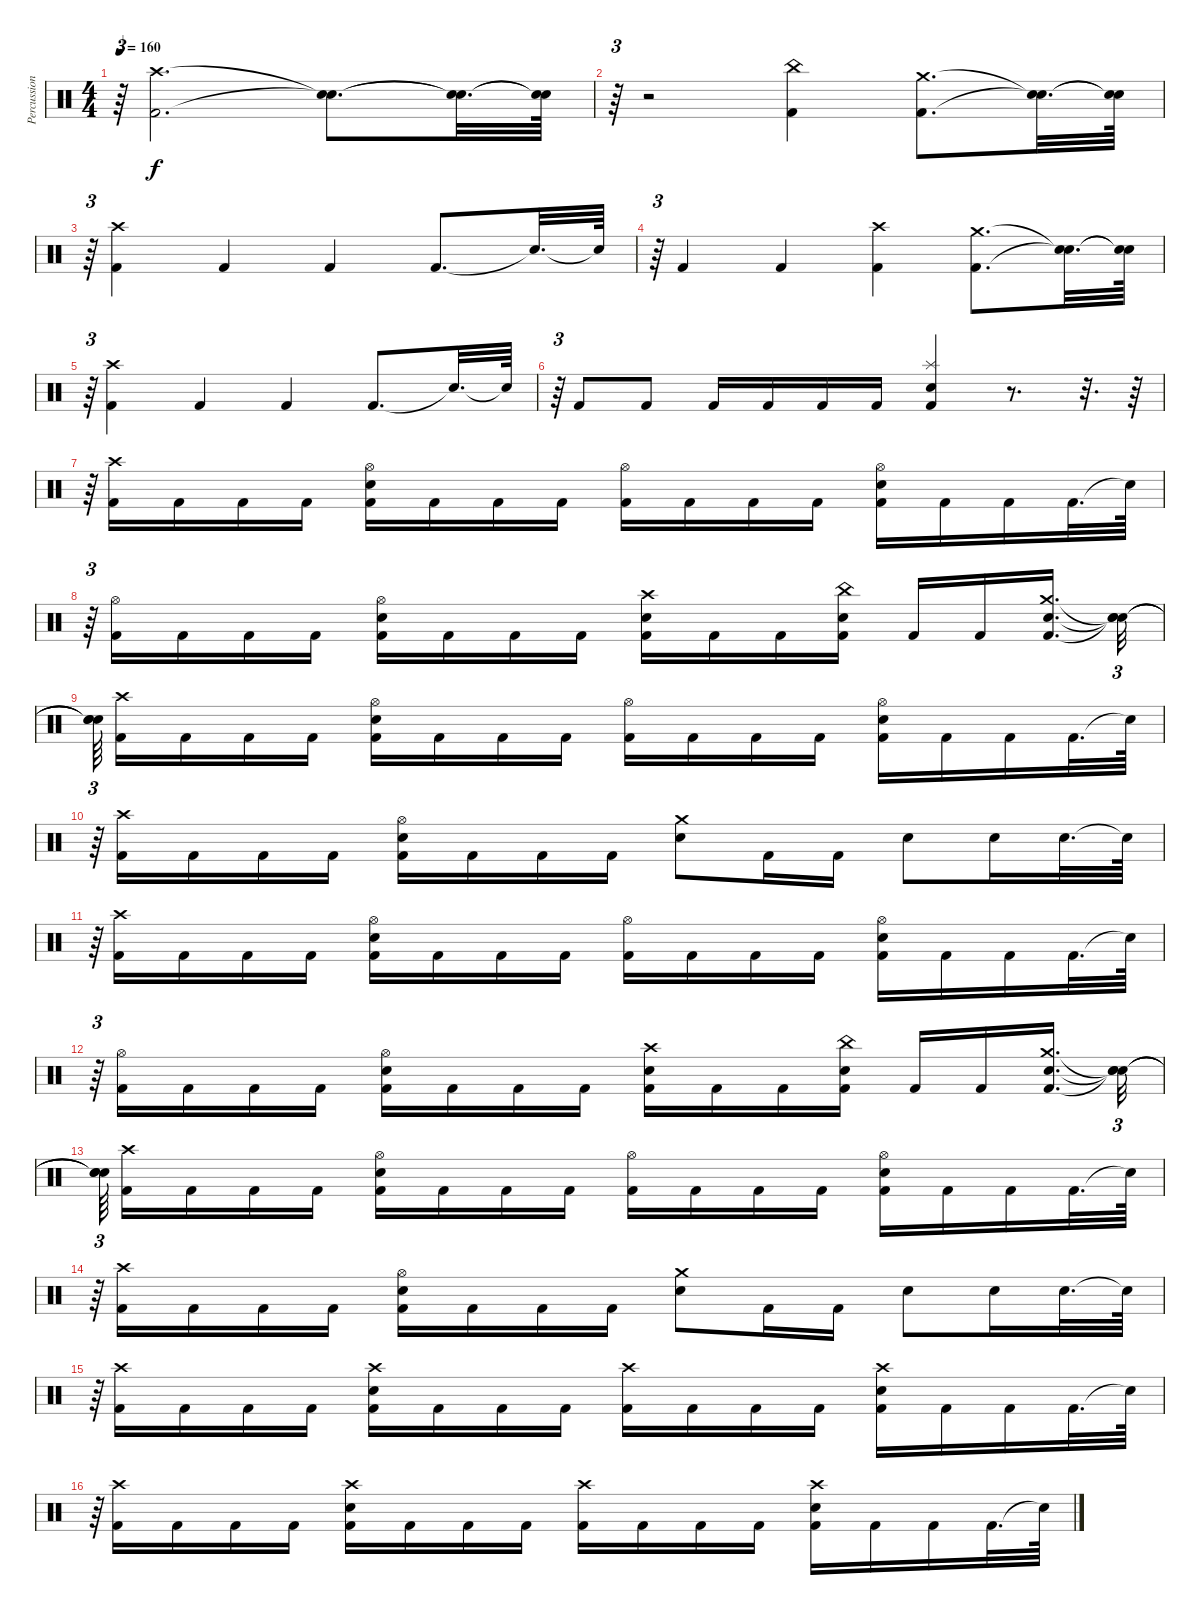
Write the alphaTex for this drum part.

\track ("Percussion" "Percussion") {instrument percussion}
\staff {score}
\articulation defaults
\ts (4 4)
\tempo 160
\clef neutral
\ks c
r.64{tu (3 2) dy f} ("Crash high (hit)" "Kick (hit) 2").2{d} ("Snare (hit)"{t} "Snare (hit)"{t}).8{d} ("Snare (hit)"{t} "Snare (hit)"{t}).32{d} ("Snare (hit)"{t} "Snare (hit)"{t}).64 |
r.64{tu (3 2)} r.2 ("China (hit)" "Kick (hit) 2").4 ("Crash medium (hit)" "Kick (hit) 2").8{d} ("Snare (hit)"{t} "Snare (hit)"{t}).32{d} ("Snare (hit)"{t} "Snare (hit)"{t}).64 |
r.64{tu (3 2)} ("Crash high (hit)" "Kick (hit) 2").4 "Kick (hit) 2".4 "Kick (hit) 2".4 "Kick (hit) 2".8{d} "Snare (hit)"{t}.32{d} "Snare (hit)"{t}.64 |
r.64{tu (3 2)} "Kick (hit) 2".4 "Kick (hit) 2".4 ("Crash high (hit)" "Kick (hit) 2").4 ("Crash medium (hit)" "Kick (hit) 2").8{d} ("Snare (hit)"{t} "Snare (hit)"{t}).32{d} ("Snare (hit)"{t} "Snare (hit)"{t}).64 |
r.64{tu (3 2)} ("Crash high (hit)" "Kick (hit) 2").4 "Kick (hit) 2".4 "Kick (hit) 2".4 "Kick (hit) 2".8{d} "Snare (hit)"{t}.32{d} "Snare (hit)"{t}.64 |
r.64{tu (3 2)} "Kick (hit) 2".8 "Kick (hit) 2".8 "Kick (hit) 2".16 "Kick (hit) 2".16 "Kick (hit) 2".16 "Kick (hit) 2".16 ("Splash (hit)" "Electric Snare (hit)" "Kick (hit) 2").4 r.8{d} r.32{d} r.64 |
r.64{tu (3 2)} ("Crash high (hit)" "Kick (hit) 2").16 "Kick (hit) 2".16 "Kick (hit) 2".16 "Kick (hit) 2".16 ("Hi-Hat (open)" "Electric Snare (hit)" "Kick (hit) 2").16 "Kick (hit) 2".16 "Kick (hit) 2".16 "Kick (hit) 2".16 ("Hi-Hat (open)" "Kick (hit) 2").16 "Kick (hit) 2".16 "Kick (hit) 2".16 "Kick (hit) 2".16 ("Hi-Hat (open)" "Electric Snare (hit)" "Kick (hit) 2").16 "Kick (hit) 2".16 "Kick (hit) 2".16 "Kick (hit) 2".32{d} "Snare (hit)"{t}.64 |
r.64{tu (3 2)} ("Hi-Hat (open)" "Kick (hit) 2").16 "Kick (hit) 2".16 "Kick (hit) 2".16 "Kick (hit) 2".16 ("Hi-Hat (open)" "Electric Snare (hit)" "Kick (hit) 2").16 "Kick (hit) 2".16 "Kick (hit) 2".16 "Kick (hit) 2".16 ("Crash high (hit)" "Electric Snare (hit)" "Kick (hit) 2").16 "Kick (hit) 2".16 "Kick (hit) 2".16 ("China (hit)" "Electric Snare (hit)" "Kick (hit) 2").16 "Kick (hit) 2".16 "Kick (hit) 2".16 ("Crash medium (hit)" "Electric Snare (hit)" "Kick (hit) 2").16{d} ("Snare (hit)"{t} "Snare (hit)"{t} "Snare (hit)"{t}).32{tu (3 2)} |
("Snare (hit)"{t} "Snare (hit)"{t} "Snare (hit)"{t}).64{tu (3 2)} ("Crash high (hit)" "Kick (hit) 2").16 "Kick (hit) 2".16 "Kick (hit) 2".16 "Kick (hit) 2".16 ("Hi-Hat (open)" "Electric Snare (hit)" "Kick (hit) 2").16 "Kick (hit) 2".16 "Kick (hit) 2".16 "Kick (hit) 2".16 ("Hi-Hat (open)" "Kick (hit) 2").16 "Kick (hit) 2".16 "Kick (hit) 2".16 "Kick (hit) 2".16 ("Hi-Hat (open)" "Electric Snare (hit)" "Kick (hit) 2").16 "Kick (hit) 2".16 "Kick (hit) 2".16 "Kick (hit) 2".32{d} "Snare (hit)"{t}.64 |
r.64{tu (3 2)} ("Crash high (hit)" "Kick (hit) 2").16 "Kick (hit) 2".16 "Kick (hit) 2".16 "Kick (hit) 2".16 ("Hi-Hat (open)" "Electric Snare (hit)" "Kick (hit) 2").16 "Kick (hit) 2".16 "Kick (hit) 2".16 "Kick (hit) 2".16 ("Crash medium (hit)" "Electric Snare (hit)").8 "Kick (hit) 2".16 "Kick (hit) 2".16 "Electric Snare (hit)".8 "Electric Snare (hit)".16 "Electric Snare (hit)".32{d} "Snare (hit)"{t}.64 |
r.64{tu (3 2)} ("Crash high (hit)" "Kick (hit) 2").16 "Kick (hit) 2".16 "Kick (hit) 2".16 "Kick (hit) 2".16 ("Hi-Hat (open)" "Electric Snare (hit)" "Kick (hit) 2").16 "Kick (hit) 2".16 "Kick (hit) 2".16 "Kick (hit) 2".16 ("Hi-Hat (open)" "Kick (hit) 2").16 "Kick (hit) 2".16 "Kick (hit) 2".16 "Kick (hit) 2".16 ("Hi-Hat (open)" "Electric Snare (hit)" "Kick (hit) 2").16 "Kick (hit) 2".16 "Kick (hit) 2".16 "Kick (hit) 2".32{d} "Snare (hit)"{t}.64 |
r.64{tu (3 2)} ("Hi-Hat (open)" "Kick (hit) 2").16 "Kick (hit) 2".16 "Kick (hit) 2".16 "Kick (hit) 2".16 ("Hi-Hat (open)" "Electric Snare (hit)" "Kick (hit) 2").16 "Kick (hit) 2".16 "Kick (hit) 2".16 "Kick (hit) 2".16 ("Crash high (hit)" "Electric Snare (hit)" "Kick (hit) 2").16 "Kick (hit) 2".16 "Kick (hit) 2".16 ("China (hit)" "Electric Snare (hit)" "Kick (hit) 2").16 "Kick (hit) 2".16 "Kick (hit) 2".16 ("Crash medium (hit)" "Electric Snare (hit)" "Kick (hit) 2").16{d} ("Snare (hit)"{t} "Snare (hit)"{t} "Snare (hit)"{t}).32{tu (3 2)} |
("Snare (hit)"{t} "Snare (hit)"{t} "Snare (hit)"{t}).64{tu (3 2)} ("Crash high (hit)" "Kick (hit) 2").16 "Kick (hit) 2".16 "Kick (hit) 2".16 "Kick (hit) 2".16 ("Hi-Hat (open)" "Electric Snare (hit)" "Kick (hit) 2").16 "Kick (hit) 2".16 "Kick (hit) 2".16 "Kick (hit) 2".16 ("Hi-Hat (open)" "Kick (hit) 2").16 "Kick (hit) 2".16 "Kick (hit) 2".16 "Kick (hit) 2".16 ("Hi-Hat (open)" "Electric Snare (hit)" "Kick (hit) 2").16 "Kick (hit) 2".16 "Kick (hit) 2".16 "Kick (hit) 2".32{d} "Snare (hit)"{t}.64 |
r.64{tu (3 2)} ("Crash high (hit)" "Kick (hit) 2").16 "Kick (hit) 2".16 "Kick (hit) 2".16 "Kick (hit) 2".16 ("Hi-Hat (open)" "Electric Snare (hit)" "Kick (hit) 2").16 "Kick (hit) 2".16 "Kick (hit) 2".16 "Kick (hit) 2".16 ("Crash medium (hit)" "Electric Snare (hit)").8 "Kick (hit) 2".16 "Kick (hit) 2".16 "Electric Snare (hit)".8 "Electric Snare (hit)".16 "Electric Snare (hit)".32{d} "Snare (hit)"{t}.64 |
r.64{tu (3 2)} ("Crash high (hit)" "Kick (hit) 2").16 "Kick (hit) 2".16 "Kick (hit) 2".16 "Kick (hit) 2".16 ("Crash high (hit)" "Electric Snare (hit)" "Kick (hit) 2").16 "Kick (hit) 2".16 "Kick (hit) 2".16 "Kick (hit) 2".16 ("Crash high (hit)" "Kick (hit) 2").16 "Kick (hit) 2".16 "Kick (hit) 2".16 "Kick (hit) 2".16 ("Crash high (hit)" "Electric Snare (hit)" "Kick (hit) 2").16 "Kick (hit) 2".16 "Kick (hit) 2".16 "Kick (hit) 2".32{d} "Snare (hit)"{t}.64 |
r.64{tu (3 2)} ("Crash high (hit)" "Kick (hit) 2").16 "Kick (hit) 2".16 "Kick (hit) 2".16 "Kick (hit) 2".16 ("Crash high (hit)" "Electric Snare (hit)" "Kick (hit) 2").16 "Kick (hit) 2".16 "Kick (hit) 2".16 "Kick (hit) 2".16 ("Crash high (hit)" "Kick (hit) 2").16 "Kick (hit) 2".16 "Kick (hit) 2".16 "Kick (hit) 2".16 ("Crash high (hit)" "Electric Snare (hit)" "Kick (hit) 2").16 "Kick (hit) 2".16 "Kick (hit) 2".16 "Kick (hit) 2".32{d} "Snare (hit)"{t}.64
